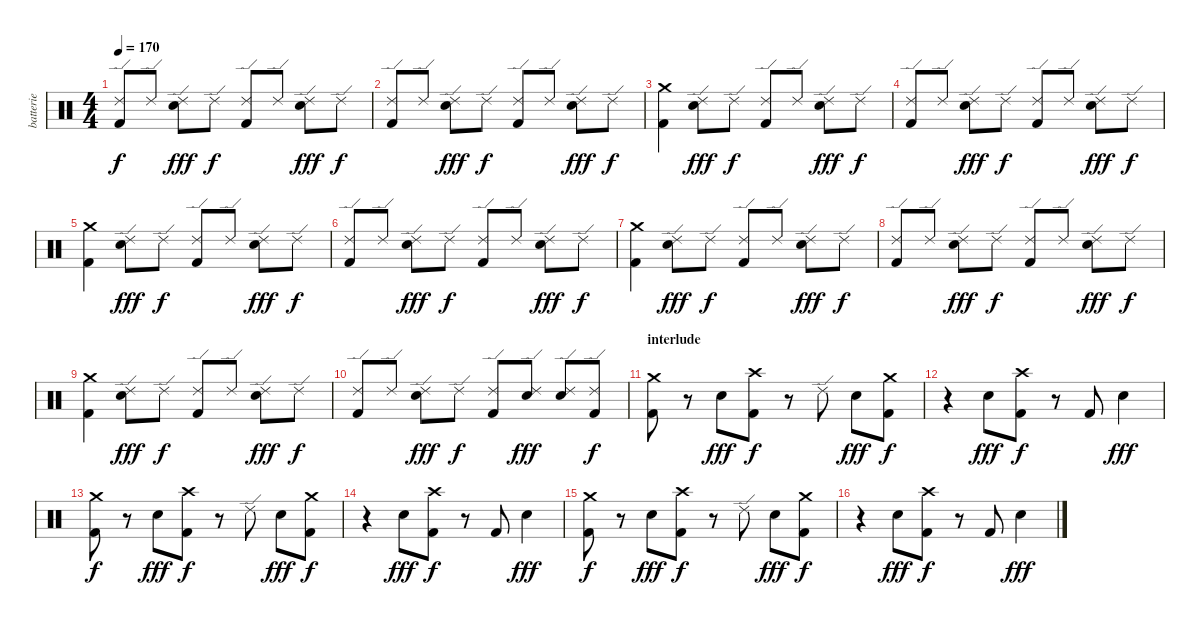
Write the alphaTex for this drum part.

\track ("batterie" "batterie") {instrument percussion}
\staff {score}
\articulation defaults
\ts (4 4)
\tempo 170
\clef neutral
\ks c
("Ride (edge) 2" "Kick (hit) 2").8{dy f} "Ride (edge) 2".8 ("Ride (edge) 2" "Electric Snare (hit)").8{dy fff} "Ride (edge) 2".8{dy f} ("Ride (edge) 2" "Kick (hit) 2").8 "Ride (edge) 2".8 ("Ride (edge) 2" "Electric Snare (hit)").8{dy fff} "Ride (edge) 2".8{dy f} |
("Ride (edge) 2" "Kick (hit) 2").8 "Ride (edge) 2".8 ("Ride (edge) 2" "Electric Snare (hit)").8{dy fff} "Ride (edge) 2".8{dy f} ("Ride (edge) 2" "Kick (hit) 2").8 "Ride (edge) 2".8 ("Ride (edge) 2" "Electric Snare (hit)").8{dy fff} "Ride (edge) 2".8{dy f} |
("Crash medium (hit)" "Kick (hit) 2").4 ("Ride (edge) 2" "Electric Snare (hit)").8{dy fff} "Ride (edge) 2".8{dy f} ("Ride (edge) 2" "Kick (hit) 2").8 "Ride (edge) 2".8 ("Ride (edge) 2" "Electric Snare (hit)").8{dy fff} "Ride (edge) 2".8{dy f} |
("Ride (edge) 2" "Kick (hit) 2").8 "Ride (edge) 2".8 ("Ride (edge) 2" "Electric Snare (hit)").8{dy fff} "Ride (edge) 2".8{dy f} ("Ride (edge) 2" "Kick (hit) 2").8 "Ride (edge) 2".8 ("Ride (edge) 2" "Electric Snare (hit)").8{dy fff} "Ride (edge) 2".8{dy f} |
("Crash medium (hit)" "Kick (hit) 2").4 ("Ride (edge) 2" "Electric Snare (hit)").8{dy fff} "Ride (edge) 2".8{dy f} ("Ride (edge) 2" "Kick (hit) 2").8 "Ride (edge) 2".8 ("Ride (edge) 2" "Electric Snare (hit)").8{dy fff} "Ride (edge) 2".8{dy f} |
("Ride (edge) 2" "Kick (hit) 2").8 "Ride (edge) 2".8 ("Ride (edge) 2" "Electric Snare (hit)").8{dy fff} "Ride (edge) 2".8{dy f} ("Ride (edge) 2" "Kick (hit) 2").8 "Ride (edge) 2".8 ("Ride (edge) 2" "Electric Snare (hit)").8{dy fff} "Ride (edge) 2".8{dy f} |
("Crash medium (hit)" "Kick (hit) 2").4 ("Ride (edge) 2" "Electric Snare (hit)").8{dy fff} "Ride (edge) 2".8{dy f} ("Ride (edge) 2" "Kick (hit) 2").8 "Ride (edge) 2".8 ("Ride (edge) 2" "Electric Snare (hit)").8{dy fff} "Ride (edge) 2".8{dy f} |
("Ride (edge) 2" "Kick (hit) 2").8 "Ride (edge) 2".8 ("Ride (edge) 2" "Electric Snare (hit)").8{dy fff} "Ride (edge) 2".8{dy f} ("Ride (edge) 2" "Kick (hit) 2").8 "Ride (edge) 2".8 ("Ride (edge) 2" "Electric Snare (hit)").8{dy fff} "Ride (edge) 2".8{dy f} |
("Crash medium (hit)" "Kick (hit) 2").4 ("Ride (edge) 2" "Electric Snare (hit)").8{dy fff} "Ride (edge) 2".8{dy f} ("Ride (edge) 2" "Kick (hit) 2").8 "Ride (edge) 2".8 ("Ride (edge) 2" "Electric Snare (hit)").8{dy fff} "Ride (edge) 2".8{dy f} |
("Ride (edge) 2" "Kick (hit) 2").8 "Ride (edge) 2".8 ("Ride (edge) 2" "Electric Snare (hit)").8{dy fff} "Ride (edge) 2".8{dy f} ("Ride (edge) 2" "Kick (hit) 2").8 ("Ride (edge) 2" "Electric Snare (hit)").8{dy fff} ("Ride (edge) 2" "Electric Snare (hit)").8 ("Ride (edge) 2" "Kick (hit) 2").8{dy f} |
\section ("" "interlude")
("Crash medium (hit)" "Kick (hit) 2").8 r.8 "Electric Snare (hit)".8{dy fff} ("Crash high (hit)" "Kick (hit) 2").8{dy f} r.8 "Ride (edge) 2".8 "Electric Snare (hit)".8{dy fff} ("Crash medium (hit)" "Kick (hit) 2").8{dy f} |
r.4 "Electric Snare (hit)".8{dy fff} ("Crash high (hit)" "Kick (hit) 2").8{dy f} r.8 "Kick (hit) 2".8 "Electric Snare (hit)".4{dy fff} |
("Crash medium (hit)" "Kick (hit) 2").8{dy f} r.8 "Electric Snare (hit)".8{dy fff} ("Crash high (hit)" "Kick (hit) 2").8{dy f} r.8 "Ride (edge) 2".8 "Electric Snare (hit)".8{dy fff} ("Crash medium (hit)" "Kick (hit) 2").8{dy f} |
r.4 "Electric Snare (hit)".8{dy fff} ("Crash high (hit)" "Kick (hit) 2").8{dy f} r.8 "Kick (hit) 2".8 "Electric Snare (hit)".4{dy fff} |
("Crash medium (hit)" "Kick (hit) 2").8{dy f} r.8 "Electric Snare (hit)".8{dy fff} ("Crash high (hit)" "Kick (hit) 2").8{dy f} r.8 "Ride (edge) 2".8 "Electric Snare (hit)".8{dy fff} ("Crash medium (hit)" "Kick (hit) 2").8{dy f} |
r.4 "Electric Snare (hit)".8{dy fff} ("Crash high (hit)" "Kick (hit) 2").8{dy f} r.8 "Kick (hit) 2".8 "Electric Snare (hit)".4{dy fff}
